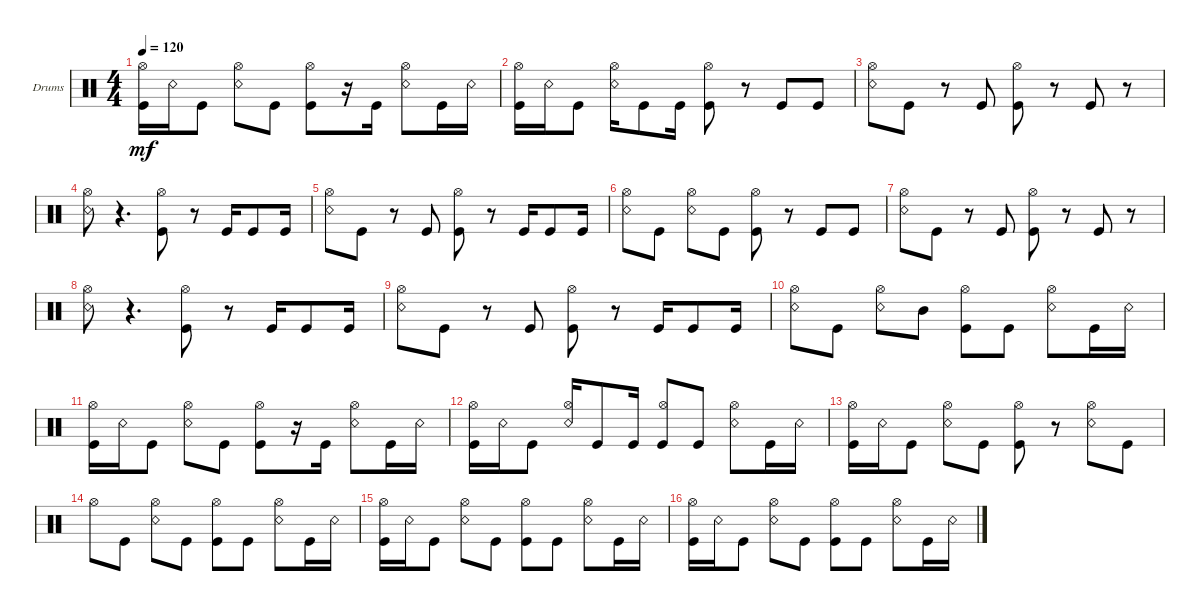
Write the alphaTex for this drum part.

\defaultSystemsLayout 4
\bracketExtendMode groupsimilarinstruments
\firstSystemTrackNameOrientation horizontal
\otherSystemsTrackNameOrientation horizontal
\track ("Drumkit" "Drums") {instrument percussion}
\staff {score}
\articulation defaults
\ts (4 4)
\tempo 120
\clef neutral
\scale
0.333333
\ks c
("Kick (hit)" "Hi-Hat (open)").16{dy mf} "Snare (rim shot)".16 "Kick (hit)".8 ("Hi-Hat (open)" "Snare (rim shot)").8 "Kick (hit)".8 ("Kick (hit)" "Hi-Hat (open)").8 r.16 "Kick (hit)".16 ("Hi-Hat (open)" "Snare (rim shot)").8 "Kick (hit)".16 "Snare (rim shot)".16 |
\scale
0.333333 ("Hi-Hat (open)" "Kick (hit)").16 "Snare (rim shot)".16 "Kick (hit)".8 ("Hi-Hat (open)" "Snare (rim shot)").16 "Kick (hit)".8 "Kick (hit)".16 ("Hi-Hat (open)" "Kick (hit)").8 r.8 "Kick (hit)".8 "Kick (hit)".8 |
\scale
0.333333 ("Hi-Hat (open)" "Snare (rim shot)").8 "Kick (hit)".8 r.8 "Kick (hit)".8 ("Kick (hit)" "Hi-Hat (open)").8 r.8 "Kick (hit)".8 r.8 |
\scale
0.333333 ("Hi-Hat (open)" "Snare (rim shot)").8 r.4{d} ("Hi-Hat (open)" "Kick (hit)").8 r.8 "Kick (hit)".16 "Kick (hit)".8 "Kick (hit)".16 |
\scale
0.333333 ("Hi-Hat (open)" "Snare (rim shot)").8 "Kick (hit)".8 r.8 "Kick (hit)".8 ("Kick (hit)" "Hi-Hat (open)").8 r.8 "Kick (hit)".16 "Kick (hit)".8 "Kick (hit)".16 |
\scale
0.333333 ("Hi-Hat (open)" "Snare (rim shot)").8 "Kick (hit)".8 ("Hi-Hat (open)" "Snare (rim shot)").8 "Kick (hit)".8 ("Kick (hit)" "Hi-Hat (open)").8 r.8 "Kick (hit)".8 "Kick (hit)".8 |
\scale
0.333333 ("Hi-Hat (open)" "Snare (rim shot)").8 "Kick (hit)".8 r.8 "Kick (hit)".8 ("Kick (hit)" "Hi-Hat (open)").8 r.8 "Kick (hit)".8 r.8 |
\scale
0.333333 ("Hi-Hat (open)" "Snare (rim shot)").8 r.4{d} ("Hi-Hat (open)" "Kick (hit)").8 r.8 "Kick (hit)".16 "Kick (hit)".8 "Kick (hit)".16 |
\scale
0.333333 ("Hi-Hat (open)" "Snare (rim shot)").8 "Kick (hit)".8 r.8 "Kick (hit)".8 ("Kick (hit)" "Hi-Hat (open)").8 r.8 "Kick (hit)".16 "Kick (hit)".8 "Kick (hit)".16 |
\scale
0.333333 ("Hi-Hat (open)" "Snare (rim shot)").8 "Kick (hit)".8 ("Hi-Hat (open)" "Snare (rim shot)").8 "Mid Tom (hit)".8 ("Hi-Hat (open)" "Kick (hit)").8 "Kick (hit)".8 ("Hi-Hat (open)" "Snare (rim shot)").8 "Kick (hit)".16 "Snare (rim shot)".16 |
\scale
0.333333 ("Kick (hit)" "Hi-Hat (open)").16 "Snare (rim shot)".16 "Kick (hit)".8 ("Hi-Hat (open)" "Snare (rim shot)").8 "Kick (hit)".8 ("Kick (hit)" "Hi-Hat (open)").8 r.16 "Kick (hit)".16 ("Hi-Hat (open)" "Snare (rim shot)").8 "Kick (hit)".16 "Snare (rim shot)".16 |
\scale
0.333333 ("Hi-Hat (open)" "Kick (hit)").16 "Snare (rim shot)".16 "Kick (hit)".8 ("Hi-Hat (open)" "Snare (rim shot)").16 "Kick (hit)".8 "Kick (hit)".16 ("Hi-Hat (open)" "Kick (hit)").8{beam invert} "Kick (hit)".8 ("Hi-Hat (open)" "Snare (rim shot)").8 "Kick (hit)".16 "Snare (rim shot)".16 |
\scale
0.333333 ("Kick (hit)" "Hi-Hat (open)").16 "Snare (rim shot)".16 "Kick (hit)".8 ("Hi-Hat (open)" "Snare (rim shot)").8 "Kick (hit)".8 ("Kick (hit)" "Hi-Hat (open)").8 r.8 ("Hi-Hat (open)" "Snare (rim shot)").8 "Kick (hit)".8 |
\scale
0.333333 "Hi-Hat (open)".8 "Kick (hit)".8 ("Hi-Hat (open)" "Snare (rim shot)").8 "Kick (hit)".8 ("Kick (hit)" "Hi-Hat (open)").8 "Kick (hit)".8 ("Hi-Hat (open)" "Snare (rim shot)").8 "Kick (hit)".16 "Snare (rim shot)".16 |
\scale
0.333333 ("Hi-Hat (open)" "Kick (hit)").16 "Snare (rim shot)".16 "Kick (hit)".8 ("Hi-Hat (open)" "Snare (rim shot)").8 "Kick (hit)".8 ("Kick (hit)" "Hi-Hat (open)").8 "Kick (hit)".8 ("Hi-Hat (open)" "Snare (rim shot)").8 "Kick (hit)".16 "Snare (rim shot)".16 |
\scale
0.333333 ("Kick (hit)" "Hi-Hat (open)").16 "Snare (rim shot)".16 "Kick (hit)".8 ("Hi-Hat (open)" "Snare (rim shot)").8 "Kick (hit)".8 ("Kick (hit)" "Hi-Hat (open)").8 "Kick (hit)".8 ("Hi-Hat (open)" "Snare (rim shot)").8 "Kick (hit)".16 "Snare (rim shot)".16
